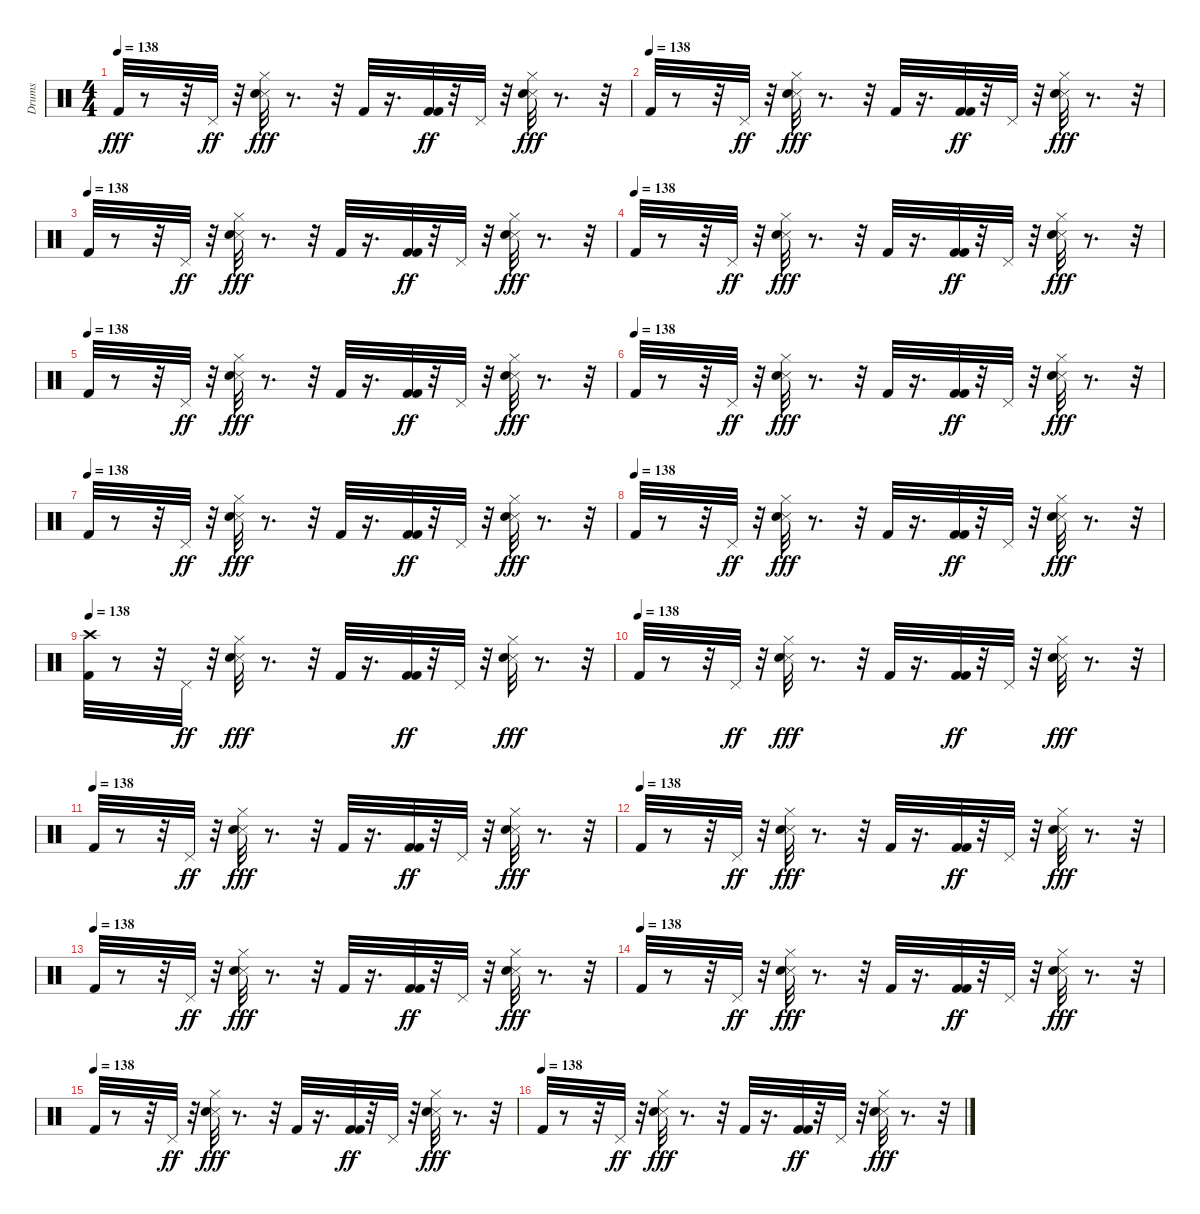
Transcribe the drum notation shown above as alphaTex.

\track ("Drums" "Drums") {instrument percussion}
\staff {score}
\articulation defaults
\ts (4 4)
\tempo 138
\clef neutral
\ks c "Kick (hit) 2".32{dy fff}
r.8 r.32 "Pedal Hi-Hat (hit)".32{dy ff} r.32 ("Snare (side stick) 3" "Snare (hit) 2" "Hi-Hat (closed)").32{dy fff} r.8{d} r.32 "Kick (hit) 2".32 r.16{d} ("Kick (hit) 2" "Kick (hit) 2").32{dy ff} r.32 "Pedal Hi-Hat (hit)".32 r.32 ("Snare (side stick) 3" "Snare (hit) 2" "Hi-Hat (closed)").32{dy fff} r.8{d} r.32 |
\tempo (138)
"Kick (hit) 2".32{volume 10} r.8 r.32 "Pedal Hi-Hat (hit)".32{dy ff} r.32 ("Snare (side stick) 3" "Snare (hit) 2" "Hi-Hat (closed)").32{dy fff} r.8{d} r.32 "Kick (hit) 2".32 r.16{d} ("Kick (hit) 2" "Kick (hit) 2").32{dy ff} r.32 "Pedal Hi-Hat (hit)".32 r.32 ("Snare (side stick) 3" "Snare (hit) 2" "Hi-Hat (closed)").32{dy fff} r.8{d} r.32 |
\tempo (138)
"Kick (hit) 2".32{volume 10} r.8 r.32 "Pedal Hi-Hat (hit)".32{dy ff} r.32 ("Snare (side stick) 3" "Snare (hit) 2" "Hi-Hat (closed)").32{dy fff} r.8{d} r.32 "Kick (hit) 2".32 r.16{d} ("Kick (hit) 2" "Kick (hit) 2").32{dy ff} r.32 "Pedal Hi-Hat (hit)".32 r.32 ("Snare (side stick) 3" "Snare (hit) 2" "Hi-Hat (closed)").32{dy fff} r.8{d} r.32 |
\tempo (138)
"Kick (hit) 2".32{volume 10} r.8 r.32 "Pedal Hi-Hat (hit)".32{dy ff} r.32 ("Snare (side stick) 3" "Snare (hit) 2" "Hi-Hat (closed)").32{dy fff} r.8{d} r.32 "Kick (hit) 2".32 r.16{d} ("Kick (hit) 2" "Kick (hit) 2").32{dy ff} r.32 "Pedal Hi-Hat (hit)".32 r.32 ("Snare (side stick) 3" "Snare (hit) 2" "Hi-Hat (closed)").32{dy fff} r.8{d} r.32 |
\tempo (138)
"Kick (hit) 2".32{volume 10} r.8 r.32 "Pedal Hi-Hat (hit)".32{dy ff} r.32 ("Snare (side stick) 3" "Snare (hit) 2" "Hi-Hat (closed)").32{dy fff} r.8{d} r.32 "Kick (hit) 2".32 r.16{d} ("Kick (hit) 2" "Kick (hit) 2").32{dy ff} r.32 "Pedal Hi-Hat (hit)".32 r.32 ("Snare (side stick) 3" "Snare (hit) 2" "Hi-Hat (closed)").32{dy fff} r.8{d} r.32 |
\tempo (138)
"Kick (hit) 2".32{volume 10} r.8 r.32 "Pedal Hi-Hat (hit)".32{dy ff} r.32 ("Snare (side stick) 3" "Snare (hit) 2" "Hi-Hat (closed)").32{dy fff} r.8{d} r.32 "Kick (hit) 2".32 r.16{d} ("Kick (hit) 2" "Kick (hit) 2").32{dy ff} r.32 "Pedal Hi-Hat (hit)".32 r.32 ("Snare (side stick) 3" "Snare (hit) 2" "Hi-Hat (closed)").32{dy fff} r.8{d} r.32 |
\tempo (138)
"Kick (hit) 2".32{volume 10} r.8 r.32 "Pedal Hi-Hat (hit)".32{dy ff} r.32 ("Snare (side stick) 3" "Snare (hit) 2" "Hi-Hat (closed)").32{dy fff} r.8{d} r.32 "Kick (hit) 2".32 r.16{d} ("Kick (hit) 2" "Kick (hit) 2").32{dy ff} r.32 "Pedal Hi-Hat (hit)".32 r.32 ("Snare (side stick) 3" "Snare (hit) 2" "Hi-Hat (closed)").32{dy fff} r.8{d} r.32 |
\tempo (138)
"Kick (hit) 2".32{volume 10} r.8 r.32 "Pedal Hi-Hat (hit)".32{dy ff} r.32 ("Snare (side stick) 3" "Snare (hit) 2" "Hi-Hat (closed)").32{dy fff} r.8{d} r.32 "Kick (hit) 2".32 r.16{d} ("Kick (hit) 2" "Kick (hit) 2").32{dy ff} r.32 "Pedal Hi-Hat (hit)".32 r.32 ("Snare (side stick) 3" "Snare (hit) 2" "Hi-Hat (closed)").32{dy fff} r.8{d} r.32 |
\tempo 138
("Kick (hit) 2" "Crash high (hit)").32{volume 10} r.8 r.32 "Pedal Hi-Hat (hit)".32{dy ff} r.32 ("Snare (side stick) 3" "Snare (hit) 2" "Hi-Hat (closed)").32{dy fff} r.8{d} r.32 "Kick (hit) 2".32 r.16{d} ("Kick (hit) 2" "Kick (hit) 2").32{dy ff} r.32 "Pedal Hi-Hat (hit)".32 r.32 ("Snare (side stick) 3" "Snare (hit) 2" "Hi-Hat (closed)").32{dy fff} r.8{d} r.32 |
\tempo (138)
"Kick (hit) 2".32{volume 10} r.8 r.32 "Pedal Hi-Hat (hit)".32{dy ff} r.32 ("Snare (side stick) 3" "Snare (hit) 2" "Hi-Hat (closed)").32{dy fff} r.8{d} r.32 "Kick (hit) 2".32 r.16{d} ("Kick (hit) 2" "Kick (hit) 2").32{dy ff} r.32 "Pedal Hi-Hat (hit)".32 r.32 ("Snare (side stick) 3" "Snare (hit) 2" "Hi-Hat (closed)").32{dy fff} r.8{d} r.32 |
\tempo (138)
"Kick (hit) 2".32{volume 10} r.8 r.32 "Pedal Hi-Hat (hit)".32{dy ff} r.32 ("Snare (side stick) 3" "Snare (hit) 2" "Hi-Hat (closed)").32{dy fff} r.8{d} r.32 "Kick (hit) 2".32 r.16{d} ("Kick (hit) 2" "Kick (hit) 2").32{dy ff} r.32 "Pedal Hi-Hat (hit)".32 r.32 ("Snare (side stick) 3" "Snare (hit) 2" "Hi-Hat (closed)").32{dy fff} r.8{d} r.32 |
\tempo (138)
"Kick (hit) 2".32{volume 10} r.8 r.32 "Pedal Hi-Hat (hit)".32{dy ff} r.32 ("Snare (side stick) 3" "Snare (hit) 2" "Hi-Hat (closed)").32{dy fff} r.8{d} r.32 "Kick (hit) 2".32 r.16{d} ("Kick (hit) 2" "Kick (hit) 2").32{dy ff} r.32 "Pedal Hi-Hat (hit)".32 r.32 ("Snare (side stick) 3" "Snare (hit) 2" "Hi-Hat (closed)").32{dy fff} r.8{d} r.32 |
\tempo (138)
"Kick (hit) 2".32{volume 10} r.8 r.32 "Pedal Hi-Hat (hit)".32{dy ff} r.32 ("Snare (side stick) 3" "Snare (hit) 2" "Hi-Hat (closed)").32{dy fff} r.8{d} r.32 "Kick (hit) 2".32 r.16{d} ("Kick (hit) 2" "Kick (hit) 2").32{dy ff} r.32 "Pedal Hi-Hat (hit)".32 r.32 ("Snare (side stick) 3" "Snare (hit) 2" "Hi-Hat (closed)").32{dy fff} r.8{d} r.32 |
\tempo (138)
"Kick (hit) 2".32{volume 10} r.8 r.32 "Pedal Hi-Hat (hit)".32{dy ff} r.32 ("Snare (side stick) 3" "Snare (hit) 2" "Hi-Hat (closed)").32{dy fff} r.8{d} r.32 "Kick (hit) 2".32 r.16{d} ("Kick (hit) 2" "Kick (hit) 2").32{dy ff} r.32 "Pedal Hi-Hat (hit)".32 r.32 ("Snare (side stick) 3" "Snare (hit) 2" "Hi-Hat (closed)").32{dy fff} r.8{d} r.32 |
\tempo (138)
"Kick (hit) 2".32{volume 10} r.8 r.32 "Pedal Hi-Hat (hit)".32{dy ff} r.32 ("Snare (side stick) 3" "Snare (hit) 2" "Hi-Hat (closed)").32{dy fff} r.8{d} r.32 "Kick (hit) 2".32 r.16{d} ("Kick (hit) 2" "Kick (hit) 2").32{dy ff} r.32 "Pedal Hi-Hat (hit)".32 r.32 ("Snare (side stick) 3" "Snare (hit) 2" "Hi-Hat (closed)").32{dy fff} r.8{d} r.32 |
\tempo (138)
"Kick (hit) 2".32{volume 10} r.8 r.32 "Pedal Hi-Hat (hit)".32{dy ff} r.32 ("Snare (side stick) 3" "Snare (hit) 2" "Hi-Hat (closed)").32{dy fff} r.8{d} r.32 "Kick (hit) 2".32 r.16{d} ("Kick (hit) 2" "Kick (hit) 2").32{dy ff} r.32 "Pedal Hi-Hat (hit)".32 r.32 ("Snare (side stick) 3" "Snare (hit) 2" "Hi-Hat (closed)").32{dy fff} r.8{d} r.32
